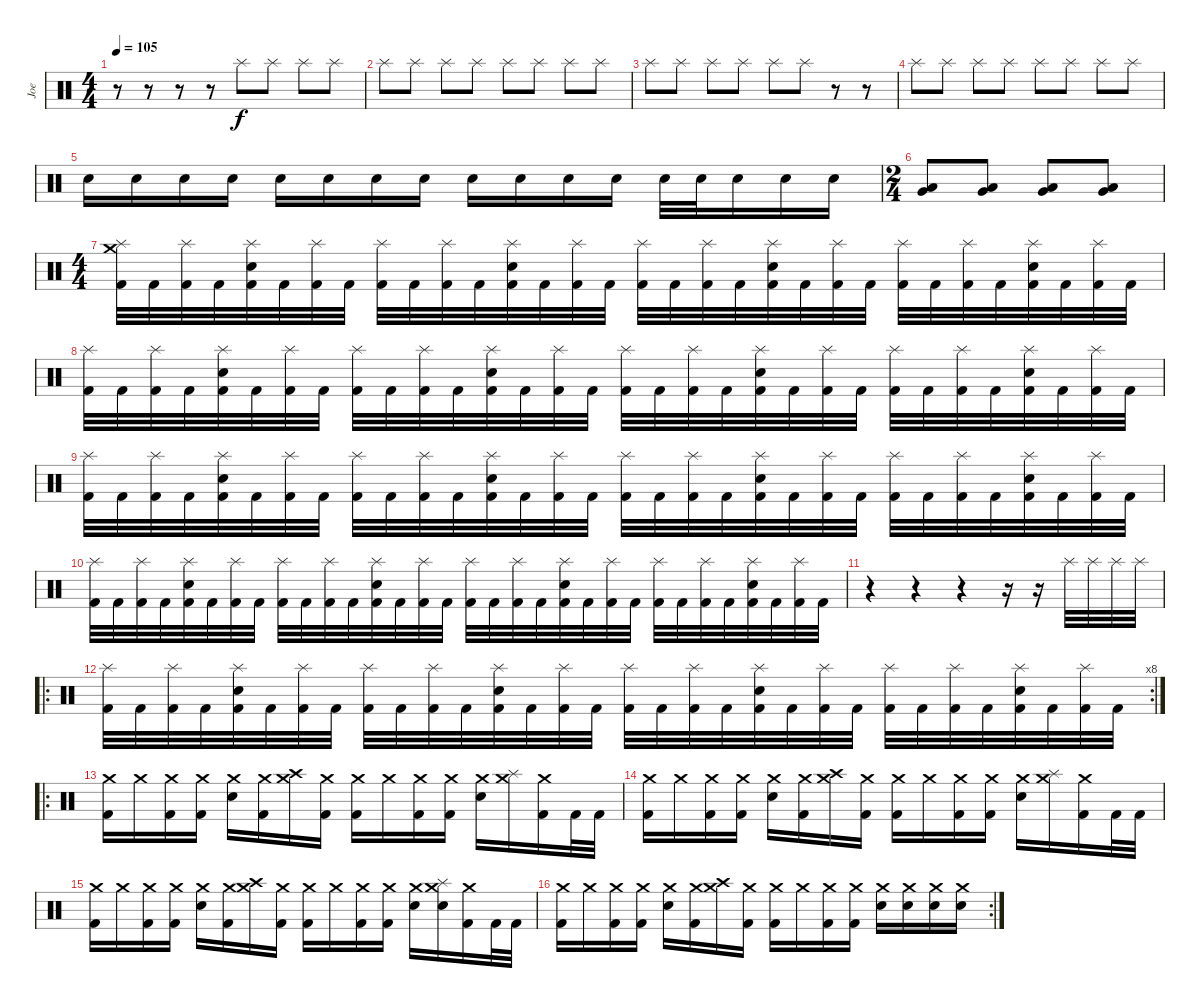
\track ("Joe" "Joe") {instrument percussion}
\staff {score}
\articulation defaults
\ts (4 4)
\tempo 105
\clef neutral
\ks c
r.8{dy f} r.8 r.8 r.8 "Splash (hit)".8 "Splash (hit)".8 "Splash (hit)".8 "Splash (hit)".8 |
"Splash (hit)".8 "Splash (hit)".8 "Splash (hit)".8 "Splash (hit)".8 "Splash (hit)".8 "Splash (hit)".8 "Splash (hit)".8 "Splash (hit)".8 |
"Splash (hit)".8 "Splash (hit)".8 "Splash (hit)".8 "Splash (hit)".8 "Splash (hit)".8 "Splash (hit)".8 r.8 r.8 |
"Splash (hit)".8 "Splash (hit)".8 "Splash (hit)".8 "Splash (hit)".8 "Splash (hit)".8 "Splash (hit)".8 "Splash (hit)".8 "Splash (hit)".8 |
"Electric Snare (hit)".16 "Electric Snare (hit)".16 "Electric Snare (hit)".16 "Electric Snare (hit)".16 "Electric Snare (hit)".16 "Electric Snare (hit)".16 "Electric Snare (hit)".16 "Electric Snare (hit)".16 "Electric Snare (hit)".16 "Electric Snare (hit)".16 "Electric Snare (hit)".16 "Electric Snare (hit)".16 "Electric Snare (hit)".32 "Electric Snare (hit)".32 "Electric Snare (hit)".16 "Electric Snare (hit)".16 "Electric Snare (hit)".16 |
\ts (2 4)
("Low Floor Tom (hit)" "Very Low Tom (hit)").8 ("Low Floor Tom (hit)" "Very Low Tom (hit)").8 ("Low Floor Tom (hit)" "Very Low Tom (hit)").8 ("Low Floor Tom (hit)" "Very Low Tom (hit)").8 |
\ts (4 4)
("Kick (hit) 2" "Splash (hit)" "Crash medium (hit)").32 "Kick (hit) 2".32 ("Kick (hit) 2" "Splash (hit)").32 "Kick (hit) 2".32 ("Kick (hit) 2" "Electric Snare (hit)" "Splash (hit)").32 "Kick (hit) 2".32 ("Kick (hit) 2" "Splash (hit)").32 "Kick (hit) 2".32 ("Kick (hit) 2" "Splash (hit)").32 "Kick (hit) 2".32 ("Kick (hit) 2" "Splash (hit)").32 "Kick (hit) 2".32 ("Kick (hit) 2" "Electric Snare (hit)" "Splash (hit)").32 "Kick (hit) 2".32 ("Kick (hit) 2" "Splash (hit)").32 "Kick (hit) 2".32 ("Kick (hit) 2" "Splash (hit)").32 "Kick (hit) 2".32 ("Kick (hit) 2" "Splash (hit)").32 "Kick (hit) 2".32 ("Kick (hit) 2" "Electric Snare (hit)" "Splash (hit)").32 "Kick (hit) 2".32 ("Kick (hit) 2" "Splash (hit)").32 "Kick (hit) 2".32 ("Kick (hit) 2" "Splash (hit)").32 "Kick (hit) 2".32 ("Kick (hit) 2" "Splash (hit)").32 "Kick (hit) 2".32 ("Kick (hit) 2" "Electric Snare (hit)" "Splash (hit)").32 "Kick (hit) 2".32 ("Kick (hit) 2" "Splash (hit)").32 "Kick (hit) 2".32 |
("Kick (hit) 2" "Splash (hit)").32 "Kick (hit) 2".32 ("Kick (hit) 2" "Splash (hit)").32 "Kick (hit) 2".32 ("Kick (hit) 2" "Electric Snare (hit)" "Splash (hit)").32 "Kick (hit) 2".32 ("Kick (hit) 2" "Splash (hit)").32 "Kick (hit) 2".32 ("Kick (hit) 2" "Splash (hit)").32 "Kick (hit) 2".32 ("Kick (hit) 2" "Splash (hit)").32 "Kick (hit) 2".32 ("Kick (hit) 2" "Electric Snare (hit)" "Splash (hit)").32 "Kick (hit) 2".32 ("Kick (hit) 2" "Splash (hit)").32 "Kick (hit) 2".32 ("Kick (hit) 2" "Splash (hit)").32 "Kick (hit) 2".32 ("Kick (hit) 2" "Splash (hit)").32 "Kick (hit) 2".32 ("Kick (hit) 2" "Electric Snare (hit)" "Splash (hit)").32 "Kick (hit) 2".32 ("Kick (hit) 2" "Splash (hit)").32 "Kick (hit) 2".32 ("Kick (hit) 2" "Splash (hit)").32 "Kick (hit) 2".32 ("Kick (hit) 2" "Splash (hit)").32 "Kick (hit) 2".32 ("Kick (hit) 2" "Electric Snare (hit)" "Splash (hit)").32 "Kick (hit) 2".32 ("Kick (hit) 2" "Splash (hit)").32 "Kick (hit) 2".32 |
("Kick (hit) 2" "Splash (hit)").32 "Kick (hit) 2".32 ("Kick (hit) 2" "Splash (hit)").32 "Kick (hit) 2".32 ("Kick (hit) 2" "Electric Snare (hit)" "Splash (hit)").32 "Kick (hit) 2".32 ("Kick (hit) 2" "Splash (hit)").32 "Kick (hit) 2".32 ("Kick (hit) 2" "Splash (hit)").32 "Kick (hit) 2".32 ("Kick (hit) 2" "Splash (hit)").32 "Kick (hit) 2".32 ("Kick (hit) 2" "Electric Snare (hit)" "Splash (hit)").32 "Kick (hit) 2".32 ("Kick (hit) 2" "Splash (hit)").32 "Kick (hit) 2".32 ("Kick (hit) 2" "Splash (hit)").32 "Kick (hit) 2".32 ("Kick (hit) 2" "Splash (hit)").32 "Kick (hit) 2".32 ("Kick (hit) 2" "Electric Snare (hit)" "Splash (hit)").32 "Kick (hit) 2".32 ("Kick (hit) 2" "Splash (hit)").32 "Kick (hit) 2".32 ("Kick (hit) 2" "Splash (hit)").32 "Kick (hit) 2".32 ("Kick (hit) 2" "Splash (hit)").32 "Kick (hit) 2".32 ("Kick (hit) 2" "Electric Snare (hit)" "Splash (hit)").32 "Kick (hit) 2".32 ("Kick (hit) 2" "Splash (hit)").32 "Kick (hit) 2".32 |
("Kick (hit) 2" "Splash (hit)").32 "Kick (hit) 2".32 ("Kick (hit) 2" "Splash (hit)").32 "Kick (hit) 2".32 ("Kick (hit) 2" "Electric Snare (hit)" "Splash (hit)").32 "Kick (hit) 2".32 ("Kick (hit) 2" "Splash (hit)").32 "Kick (hit) 2".32 ("Kick (hit) 2" "Splash (hit)").32 "Kick (hit) 2".32 ("Kick (hit) 2" "Splash (hit)").32 "Kick (hit) 2".32 ("Kick (hit) 2" "Electric Snare (hit)" "Splash (hit)").32 "Kick (hit) 2".32 ("Kick (hit) 2" "Splash (hit)").32 "Kick (hit) 2".32 ("Kick (hit) 2" "Splash (hit)").32 "Kick (hit) 2".32 ("Kick (hit) 2" "Splash (hit)").32 "Kick (hit) 2".32 ("Kick (hit) 2" "Electric Snare (hit)" "Splash (hit)").32 "Kick (hit) 2".32 ("Kick (hit) 2" "Splash (hit)").32 "Kick (hit) 2".32 ("Kick (hit) 2" "Splash (hit)").32 "Kick (hit) 2".32 ("Kick (hit) 2" "Splash (hit)").32 "Kick (hit) 2".32 ("Kick (hit) 2" "Electric Snare (hit)" "Splash (hit)").32 "Kick (hit) 2".32 ("Kick (hit) 2" "Splash (hit)").32 "Kick (hit) 2".32 |
r.4 r.4 r.4 r.16 r.16 "Splash (hit)".32 "Splash (hit)".32 "Splash (hit)".32 "Splash (hit)".32 |
\ro
\rc 8
("Kick (hit) 2" "Splash (hit)").32 "Kick (hit) 2".32 ("Kick (hit) 2" "Splash (hit)").32 "Kick (hit) 2".32 ("Kick (hit) 2" "Electric Snare (hit)" "Splash (hit)").32 "Kick (hit) 2".32 ("Kick (hit) 2" "Splash (hit)").32 "Kick (hit) 2".32 ("Kick (hit) 2" "Splash (hit)").32 "Kick (hit) 2".32 ("Kick (hit) 2" "Splash (hit)").32 "Kick (hit) 2".32 ("Kick (hit) 2" "Electric Snare (hit)" "Splash (hit)").32 "Kick (hit) 2".32 ("Kick (hit) 2" "Splash (hit)").32 "Kick (hit) 2".32 ("Kick (hit) 2" "Splash (hit)").32 "Kick (hit) 2".32 ("Kick (hit) 2" "Splash (hit)").32 "Kick (hit) 2".32 ("Kick (hit) 2" "Electric Snare (hit)" "Splash (hit)").32 "Kick (hit) 2".32 ("Kick (hit) 2" "Splash (hit)").32 "Kick (hit) 2".32 ("Kick (hit) 2" "Splash (hit)").32 "Kick (hit) 2".32 ("Kick (hit) 2" "Splash (hit)").32 "Kick (hit) 2".32 ("Kick (hit) 2" "Electric Snare (hit)" "Splash (hit)").32 "Kick (hit) 2".32 ("Kick (hit) 2" "Splash (hit)").32 "Kick (hit) 2".32 |
\ro
("Kick (hit) 2" "Crash medium (hit)").16 "Crash medium (hit)".16 ("Kick (hit) 2" "Crash medium (hit)").16 ("Kick (hit) 2" "Crash medium (hit)").16 ("Crash medium (hit)" "Electric Snare (hit)").16 ("Kick (hit) 2" "Crash medium (hit)").16 ("Crash high (hit)" "Crash medium (hit)").16 ("Kick (hit) 2" "Crash medium (hit)").16 ("Kick (hit) 2" "Crash medium (hit)").16 "Crash medium (hit)".16 ("Kick (hit) 2" "Crash medium (hit)").16 ("Kick (hit) 2" "Crash medium (hit)").16 ("Crash medium (hit)" "Electric Snare (hit)").16 ("Splash (hit)" "Crash medium (hit)").16 ("Kick (hit) 2" "Crash medium (hit)").16 "Kick (hit) 2".32 "Kick (hit) 2".32 |
("Kick (hit) 2" "Crash medium (hit)").16 "Crash medium (hit)".16 ("Kick (hit) 2" "Crash medium (hit)").16 ("Kick (hit) 2" "Crash medium (hit)").16 ("Crash medium (hit)" "Electric Snare (hit)").16 ("Kick (hit) 2" "Crash medium (hit)").16 ("Crash high (hit)" "Crash medium (hit)").16 ("Kick (hit) 2" "Crash medium (hit)").16 ("Kick (hit) 2" "Crash medium (hit)").16 "Crash medium (hit)".16 ("Kick (hit) 2" "Crash medium (hit)").16 ("Kick (hit) 2" "Crash medium (hit)").16 ("Crash medium (hit)" "Electric Snare (hit)").16 ("Splash (hit)" "Crash medium (hit)").16 ("Kick (hit) 2" "Crash medium (hit)").16 "Kick (hit) 2".32 "Kick (hit) 2".32 |
("Kick (hit) 2" "Crash medium (hit)").16 "Crash medium (hit)".16 ("Kick (hit) 2" "Crash medium (hit)").16 ("Kick (hit) 2" "Crash medium (hit)").16 ("Crash medium (hit)" "Electric Snare (hit)").16 ("Kick (hit) 2" "Crash medium (hit)").16 ("Crash high (hit)" "Crash medium (hit)").16 ("Kick (hit) 2" "Crash medium (hit)").16 ("Kick (hit) 2" "Crash medium (hit)").16 "Crash medium (hit)".16 ("Kick (hit) 2" "Crash medium (hit)").16 ("Kick (hit) 2" "Crash medium (hit)").16 ("Crash medium (hit)" "Electric Snare (hit)").16 ("Splash (hit)" "Crash medium (hit)" "Electric Snare (hit)").16 ("Kick (hit) 2" "Crash medium (hit)").16 "Kick (hit) 2".32 "Kick (hit) 2".32 |
\rc 2
("Kick (hit) 2" "Crash medium (hit)").16 "Crash medium (hit)".16 ("Kick (hit) 2" "Crash medium (hit)").16 ("Kick (hit) 2" "Crash medium (hit)").16 ("Crash medium (hit)" "Electric Snare (hit)").16 ("Kick (hit) 2" "Crash medium (hit)").16 ("Crash high (hit)" "Crash medium (hit)").16 ("Kick (hit) 2" "Crash medium (hit)").16 ("Kick (hit) 2" "Crash medium (hit)").16 "Crash medium (hit)".16 ("Kick (hit) 2" "Crash medium (hit)").16 ("Kick (hit) 2" "Crash medium (hit)").16 ("Crash medium (hit)" "Electric Snare (hit)").16 ("Crash medium (hit)" "Electric Snare (hit)").16 ("Crash medium (hit)" "Electric Snare (hit)").16 ("Crash medium (hit)" "Electric Snare (hit)").16
